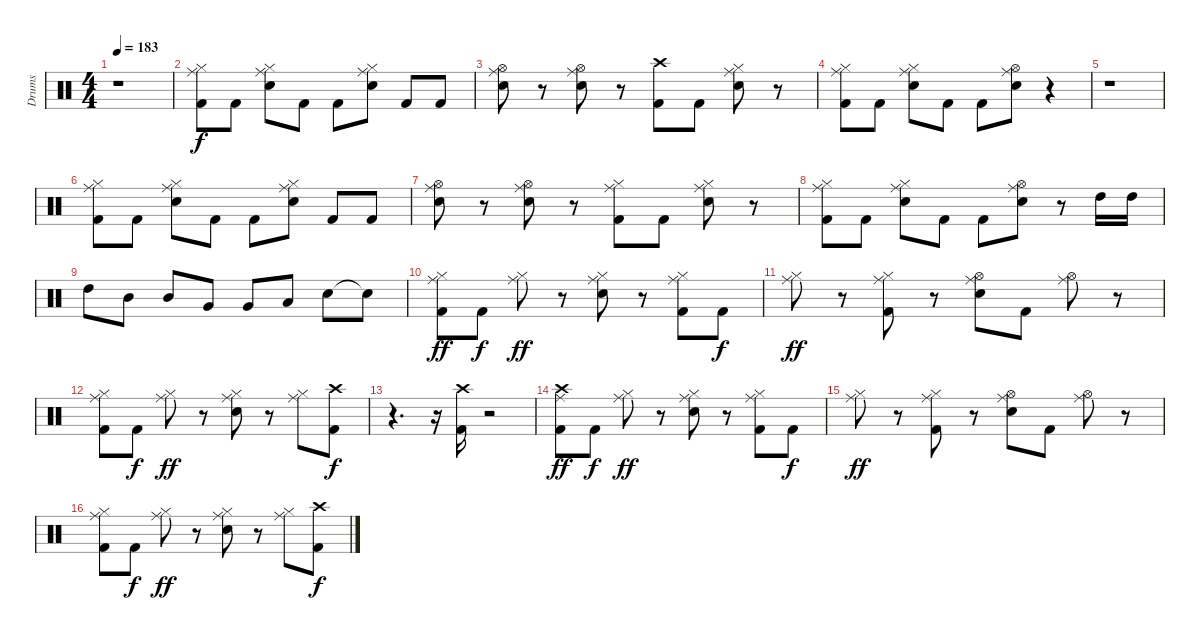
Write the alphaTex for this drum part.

\track ("Drums" "Drums") {instrument percussion}
\staff {score}
\articulation defaults
\ts (4 4)
\tempo 183
\clef neutral
\ks c
r.1{dy f} |
("Hi-Hat (closed)" "Ride (middle)" "Kick (hit) 2").8{volume 13} "Kick (hit) 2".8 ("Hi-Hat (closed)" "Ride (middle)" "Snare (hit) 2").8 "Kick (hit) 2".8 "Kick (hit) 2".8 ("Hi-Hat (closed)" "Ride (middle)" "Snare (hit) 2").8 "Kick (hit) 2".8 "Kick (hit) 2".8 |
("Hi-Hat (open)" "Ride (middle)" "Snare (hit) 2").8 r.8 ("Hi-Hat (open)" "Ride (middle)" "Snare (hit) 2").8 r.8 ("Crash high (hit)" "Kick (hit) 2").8 "Kick (hit) 2".8 ("Hi-Hat (closed)" "Ride (middle)" "Snare (hit) 2").8 r.8 |
("Hi-Hat (closed)" "Ride (middle)" "Kick (hit) 2").8 "Kick (hit) 2".8 ("Hi-Hat (closed)" "Ride (middle)" "Snare (hit) 2").8 "Kick (hit) 2".8 "Kick (hit) 2".8 ("Hi-Hat (open)" "Ride (middle)" "Snare (hit) 2").8{volume 4} r.4 |
r.1 |
("Hi-Hat (closed)" "Ride (middle)" "Kick (hit) 2").8{volume 13} "Kick (hit) 2".8 ("Hi-Hat (closed)" "Ride (middle)" "Snare (hit) 2").8 "Kick (hit) 2".8 "Kick (hit) 2".8 ("Hi-Hat (closed)" "Ride (middle)" "Snare (hit) 2").8 "Kick (hit) 2".8 "Kick (hit) 2".8 |
("Hi-Hat (open)" "Ride (middle)" "Snare (hit) 2").8 r.8 ("Hi-Hat (open)" "Ride (middle)" "Snare (hit) 2").8 r.8 ("Hi-Hat (closed)" "Ride (middle)" "Kick (hit) 2").8 "Kick (hit) 2".8 ("Hi-Hat (closed)" "Ride (middle)" "Snare (hit) 2").8 r.8 |
("Hi-Hat (closed)" "Ride (middle)" "Kick (hit) 2").8 "Kick (hit) 2".8 ("Hi-Hat (closed)" "Ride (middle)" "Snare (hit) 2").8 "Kick (hit) 2".8 "Kick (hit) 2".8 ("Hi-Hat (open)" "Ride (middle)" "Snare (hit) 2").8{volume 4} r.8 "High Tom (hit)".16{volume 13} "High Tom (hit)".16 |
"High Tom (hit)".8 "Mid Tom (hit)".8 "Mid Tom (hit)".8 "Very Low Tom (hit)".8 "Very Low Tom (hit)".8 "Low Floor Tom (hit)".8 "Snare (hit) 2".8 "Snare (hit)"{t}.8 |
("Hi-Hat (closed)" "Ride (middle)" "Kick (hit) 2").8{dy ff} "Kick (hit) 2".8{dy f} ("Hi-Hat (closed)" "Ride (middle)").8{dy ff} r.8 ("Hi-Hat (closed)" "Ride (middle)" "Snare (hit) 2").8 r.8 ("Hi-Hat (closed)" "Ride (middle)" "Kick (hit) 2").8 "Kick (hit) 2".8{dy f} |
("Hi-Hat (closed)" "Ride (middle)").8{dy ff} r.8 ("Hi-Hat (closed)" "Ride (middle)" "Kick (hit) 2").8 r.8 ("Hi-Hat (open)" "Ride (middle)" "Snare (hit) 2").8 "Kick (hit) 2".8 ("Hi-Hat (open)" "Ride (middle)").8 r.8 |
("Hi-Hat (closed)" "Ride (middle)" "Kick (hit) 2").8 "Kick (hit) 2".8{dy f} ("Hi-Hat (closed)" "Ride (middle)").8{dy ff} r.8 ("Hi-Hat (closed)" "Ride (middle)" "Snare (hit) 2").8 r.8 ("Hi-Hat (closed)" "Ride (middle)").8 ("Crash high (hit)" "Kick (hit) 2").8{dy f} |
r.4{d} r.16 ("Crash high (hit)" "Kick (hit) 2").16 r.2 |
("Crash high (hit)" "Ride (middle)" "Kick (hit) 2").8{dy ff} "Kick (hit) 2".8{dy f} ("Hi-Hat (closed)" "Ride (middle)").8{dy ff} r.8 ("Hi-Hat (closed)" "Ride (middle)" "Snare (hit) 2").8 r.8 ("Hi-Hat (closed)" "Ride (middle)" "Kick (hit) 2").8 "Kick (hit) 2".8{dy f} |
("Hi-Hat (closed)" "Ride (middle)").8{dy ff} r.8 ("Hi-Hat (closed)" "Ride (middle)" "Kick (hit) 2").8 r.8 ("Hi-Hat (open)" "Ride (middle)" "Snare (hit) 2").8 "Kick (hit) 2".8 ("Hi-Hat (open)" "Ride (middle)").8 r.8 |
("Hi-Hat (closed)" "Ride (middle)" "Kick (hit) 2").8 "Kick (hit) 2".8{dy f} ("Hi-Hat (closed)" "Ride (middle)").8{dy ff} r.8 ("Hi-Hat (closed)" "Ride (middle)" "Snare (hit) 2").8 r.8 ("Hi-Hat (closed)" "Ride (middle)").8 ("Crash high (hit)" "Kick (hit) 2").8{dy f}
